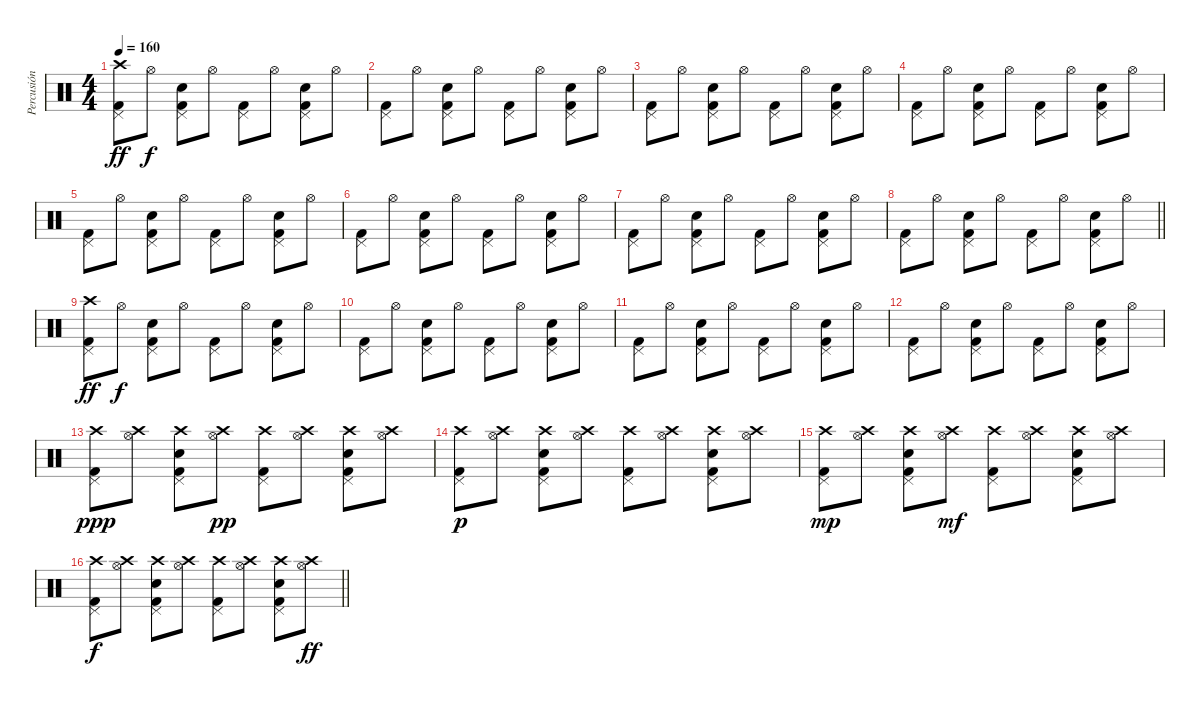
\track ("Percusión" "Percusión") {instrument percussion}
\staff {score}
\articulation defaults
\ts (4 4)
\section ("" "")
\tempo 160
\clef neutral
\ks c
("Crash high (hit)" "Pedal Hi-Hat (hit)" "Kick (hit) 2").8{dy ff} "Hi-Hat (open)".8{dy f} ("Pedal Hi-Hat (hit)" "Snare (hit) 2" "Kick (hit) 2").8 "Hi-Hat (open)".8 ("Pedal Hi-Hat (hit)" "Kick (hit) 2").8 "Hi-Hat (open)".8 ("Pedal Hi-Hat (hit)" "Snare (hit) 2" "Kick (hit) 2").8 "Hi-Hat (open)".8 |
("Pedal Hi-Hat (hit)" "Kick (hit) 2").8 "Hi-Hat (open)".8 ("Pedal Hi-Hat (hit)" "Snare (hit) 2" "Kick (hit) 2").8 "Hi-Hat (open)".8 ("Pedal Hi-Hat (hit)" "Kick (hit) 2").8 "Hi-Hat (open)".8 ("Pedal Hi-Hat (hit)" "Snare (hit) 2" "Kick (hit) 2").8 "Hi-Hat (open)".8 |
("Pedal Hi-Hat (hit)" "Kick (hit) 2").8 "Hi-Hat (open)".8 ("Pedal Hi-Hat (hit)" "Snare (hit) 2" "Kick (hit) 2").8 "Hi-Hat (open)".8 ("Pedal Hi-Hat (hit)" "Kick (hit) 2").8 "Hi-Hat (open)".8 ("Pedal Hi-Hat (hit)" "Snare (hit) 2" "Kick (hit) 2").8 "Hi-Hat (open)".8 |
("Pedal Hi-Hat (hit)" "Kick (hit) 2").8 "Hi-Hat (open)".8 ("Pedal Hi-Hat (hit)" "Snare (hit) 2" "Kick (hit) 2").8 "Hi-Hat (open)".8 ("Pedal Hi-Hat (hit)" "Kick (hit) 2").8 "Hi-Hat (open)".8 ("Pedal Hi-Hat (hit)" "Snare (hit) 2" "Kick (hit) 2").8 "Hi-Hat (open)".8 |
("Pedal Hi-Hat (hit)" "Kick (hit) 2").8 "Hi-Hat (open)".8 ("Pedal Hi-Hat (hit)" "Snare (hit) 2" "Kick (hit) 2").8 "Hi-Hat (open)".8 ("Pedal Hi-Hat (hit)" "Kick (hit) 2").8 "Hi-Hat (open)".8 ("Pedal Hi-Hat (hit)" "Snare (hit) 2" "Kick (hit) 2").8 "Hi-Hat (open)".8 |
("Pedal Hi-Hat (hit)" "Kick (hit) 2").8 "Hi-Hat (open)".8 ("Pedal Hi-Hat (hit)" "Snare (hit) 2" "Kick (hit) 2").8 "Hi-Hat (open)".8 ("Pedal Hi-Hat (hit)" "Kick (hit) 2").8 "Hi-Hat (open)".8 ("Pedal Hi-Hat (hit)" "Snare (hit) 2" "Kick (hit) 2").8 "Hi-Hat (open)".8 |
("Pedal Hi-Hat (hit)" "Kick (hit) 2").8 "Hi-Hat (open)".8 ("Pedal Hi-Hat (hit)" "Snare (hit) 2" "Kick (hit) 2").8 "Hi-Hat (open)".8 ("Pedal Hi-Hat (hit)" "Kick (hit) 2").8 "Hi-Hat (open)".8 ("Pedal Hi-Hat (hit)" "Snare (hit) 2" "Kick (hit) 2").8 "Hi-Hat (open)".8 |
\barLineRight lightlight
("Pedal Hi-Hat (hit)" "Kick (hit) 2").8 "Hi-Hat (open)".8 ("Pedal Hi-Hat (hit)" "Snare (hit) 2" "Kick (hit) 2").8 "Hi-Hat (open)".8 ("Pedal Hi-Hat (hit)" "Kick (hit) 2").8 "Hi-Hat (open)".8 ("Pedal Hi-Hat (hit)" "Snare (hit) 2" "Kick (hit) 2").8 "Hi-Hat (open)".8 |
\section ("" "")
("Crash high (hit)" "Pedal Hi-Hat (hit)" "Kick (hit) 2").8{dy ff} "Hi-Hat (open)".8{dy f} ("Pedal Hi-Hat (hit)" "Snare (hit) 2" "Kick (hit) 2").8 "Hi-Hat (open)".8 ("Pedal Hi-Hat (hit)" "Kick (hit) 2").8 "Hi-Hat (open)".8 ("Pedal Hi-Hat (hit)" "Snare (hit) 2" "Kick (hit) 2").8 "Hi-Hat (open)".8 |
("Pedal Hi-Hat (hit)" "Kick (hit) 2").8 "Hi-Hat (open)".8 ("Pedal Hi-Hat (hit)" "Snare (hit) 2" "Kick (hit) 2").8 "Hi-Hat (open)".8 ("Pedal Hi-Hat (hit)" "Kick (hit) 2").8 "Hi-Hat (open)".8 ("Pedal Hi-Hat (hit)" "Snare (hit) 2" "Kick (hit) 2").8 "Hi-Hat (open)".8 |
("Pedal Hi-Hat (hit)" "Kick (hit) 2").8 "Hi-Hat (open)".8 ("Pedal Hi-Hat (hit)" "Snare (hit) 2" "Kick (hit) 2").8 "Hi-Hat (open)".8 ("Pedal Hi-Hat (hit)" "Kick (hit) 2").8 "Hi-Hat (open)".8 ("Pedal Hi-Hat (hit)" "Snare (hit) 2" "Kick (hit) 2").8 "Hi-Hat (open)".8 |
("Pedal Hi-Hat (hit)" "Kick (hit) 2").8 "Hi-Hat (open)".8 ("Pedal Hi-Hat (hit)" "Snare (hit) 2" "Kick (hit) 2").8 "Hi-Hat (open)".8 ("Pedal Hi-Hat (hit)" "Kick (hit) 2").8 "Hi-Hat (open)".8 ("Pedal Hi-Hat (hit)" "Snare (hit) 2" "Kick (hit) 2").8 "Hi-Hat (open)".8 |
("Crash high (hit)" "Pedal Hi-Hat (hit)" "Kick (hit) 2").8{dy ppp} ("Crash high (hit)" "Hi-Hat (open)").8 ("Crash high (hit)" "Pedal Hi-Hat (hit)" "Snare (hit) 2" "Kick (hit) 2").8 ("Crash high (hit)" "Hi-Hat (open)").8{dy pp} ("Crash high (hit)" "Pedal Hi-Hat (hit)" "Kick (hit) 2").8 ("Crash high (hit)" "Hi-Hat (open)").8 ("Crash high (hit)" "Pedal Hi-Hat (hit)" "Snare (hit) 2" "Kick (hit) 2").8 ("Crash high (hit)" "Hi-Hat (open)").8 |
("Crash high (hit)" "Pedal Hi-Hat (hit)" "Kick (hit) 2").8{dy p} ("Crash high (hit)" "Hi-Hat (open)").8 ("Crash high (hit)" "Pedal Hi-Hat (hit)" "Snare (hit) 2" "Kick (hit) 2").8 ("Crash high (hit)" "Hi-Hat (open)").8 ("Crash high (hit)" "Pedal Hi-Hat (hit)" "Kick (hit) 2").8 ("Crash high (hit)" "Hi-Hat (open)").8 ("Crash high (hit)" "Pedal Hi-Hat (hit)" "Snare (hit) 2" "Kick (hit) 2").8 ("Crash high (hit)" "Hi-Hat (open)").8 |
("Crash high (hit)" "Pedal Hi-Hat (hit)" "Kick (hit) 2").8{dy mp} ("Crash high (hit)" "Hi-Hat (open)").8 ("Crash high (hit)" "Pedal Hi-Hat (hit)" "Snare (hit) 2" "Kick (hit) 2").8 ("Crash high (hit)" "Hi-Hat (open)").8{dy mf} ("Crash high (hit)" "Pedal Hi-Hat (hit)" "Kick (hit) 2").8 ("Crash high (hit)" "Hi-Hat (open)").8 ("Crash high (hit)" "Pedal Hi-Hat (hit)" "Snare (hit) 2" "Kick (hit) 2").8 ("Crash high (hit)" "Hi-Hat (open)").8 |
\barLineRight lightlight
("Crash high (hit)" "Pedal Hi-Hat (hit)" "Kick (hit) 2").8{dy f} ("Crash high (hit)" "Hi-Hat (open)").8 ("Crash high (hit)" "Pedal Hi-Hat (hit)" "Snare (hit) 2" "Kick (hit) 2").8 ("Crash high (hit)" "Hi-Hat (open)").8 ("Crash high (hit)" "Pedal Hi-Hat (hit)" "Kick (hit) 2").8 ("Crash high (hit)" "Hi-Hat (open)").8 ("Crash high (hit)" "Pedal Hi-Hat (hit)" "Snare (hit) 2" "Kick (hit) 2").8 ("Crash high (hit)" "Hi-Hat (open)").8{dy ff}
